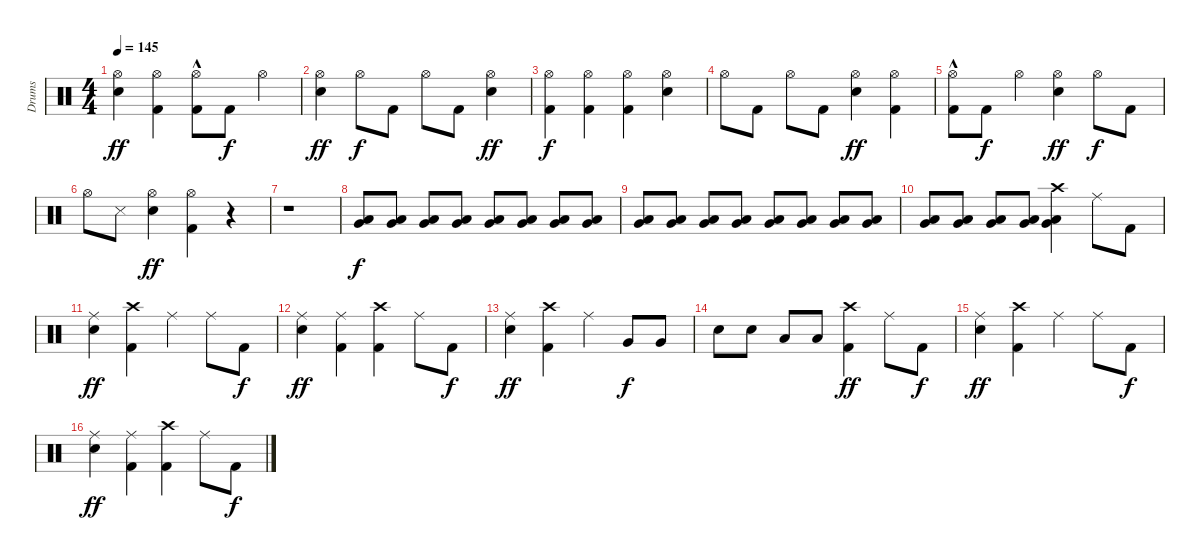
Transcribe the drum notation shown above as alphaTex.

\track ("Drums" "Drums") {instrument percussion}
\staff {score}
\articulation defaults
\ts (4 4)
\tempo 145
\clef neutral
\ks c
("Hi-Hat (open)" "Electric Snare (hit)").4{dy ff} ("Hi-Hat (open)" "Kick (hit) 2").4 ("Hi-Hat (open)"{hac} "Kick (hit) 2").8 "Kick (hit) 2".8{dy f} "Hi-Hat (open)".4 |
("Hi-Hat (open)" "Electric Snare (hit)").4{dy ff} "Hi-Hat (open)".8{dy f} "Kick (hit) 2".8 "Hi-Hat (open)".8 "Kick (hit) 2".8 ("Hi-Hat (open)" "Electric Snare (hit)").4{dy ff} |
("Hi-Hat (open)" "Kick (hit) 2").4{dy f} ("Hi-Hat (open)" "Kick (hit) 2").4 ("Hi-Hat (open)" "Kick (hit) 2").4 ("Hi-Hat (open)" "Electric Snare (hit)").4 |
"Hi-Hat (open)".8 "Kick (hit) 2".8 "Hi-Hat (open)".8 "Kick (hit) 2".8 ("Hi-Hat (open)" "Electric Snare (hit)").4{dy ff} ("Hi-Hat (open)" "Kick (hit) 2").4 |
("Hi-Hat (open)"{hac} "Kick (hit) 2").8 "Kick (hit) 2".8{dy f} "Hi-Hat (open)".4 ("Hi-Hat (open)" "Electric Snare (hit)").4{dy ff} "Hi-Hat (open)".8{dy f} "Kick (hit) 2".8 |
"Hi-Hat (open)".8 "Snare (side stick) 3".8 ("Hi-Hat (open)" "Electric Snare (hit)").4{dy ff} ("Hi-Hat (open)" "Kick (hit) 2").4 r.4 |
r.1 |
("Low Tom (hit)" "Very Low Tom (hit)").8{dy f volume 4} ("Low Tom (hit)" "Very Low Tom (hit)").8{volume 5} ("Low Tom (hit)" "Very Low Tom (hit)").8{volume 6} ("Low Tom (hit)" "Very Low Tom (hit)").8{volume 7} ("Low Tom (hit)" "Very Low Tom (hit)").8{volume 8} ("Low Tom (hit)" "Very Low Tom (hit)").8{volume 9} ("Low Tom (hit)" "Very Low Tom (hit)").8{volume 10} ("Low Tom (hit)" "Very Low Tom (hit)").8{volume 11} |
("Low Tom (hit)" "Very Low Tom (hit)").8{volume 12} ("Low Tom (hit)" "Very Low Tom (hit)").8{volume 13} ("Low Tom (hit)" "Very Low Tom (hit)").8{volume 13} ("Low Tom (hit)" "Very Low Tom (hit)").8{volume 14} ("Low Tom (hit)" "Very Low Tom (hit)").8 ("Low Tom (hit)" "Very Low Tom (hit)").8 ("Low Tom (hit)" "Very Low Tom (hit)").8 ("Low Tom (hit)" "Very Low Tom (hit)").8 |
("Low Tom (hit)" "Very Low Tom (hit)").8{volume 12} ("Low Tom (hit)" "Very Low Tom (hit)").8{volume 13} ("Low Tom (hit)" "Very Low Tom (hit)").8{volume 13} ("Low Tom (hit)" "Very Low Tom (hit)").8{volume 14} ("Crash high (hit)" "Low Tom (hit)" "Very Low Tom (hit)").4 "Ride (middle)".8 "Kick (hit) 2".8 |
("Ride (middle)" "Electric Snare (hit)").4{dy ff} ("Crash high (hit)" "Kick (hit) 2").4 "Ride (middle)".4 "Ride (middle)".8 "Kick (hit) 2".8{dy f} |
("Ride (middle)" "Electric Snare (hit)").4{dy ff} ("Ride (middle)" "Kick (hit) 2").4 ("Crash high (hit)" "Kick (hit) 2").4 "Ride (middle)".8 "Kick (hit) 2".8{dy f} |
("Ride (middle)" "Electric Snare (hit)").4{dy ff} ("Crash high (hit)" "Kick (hit) 2").4 "Ride (middle)".4 "Very Low Tom (hit)".8{dy f} "Very Low Tom (hit)".8 |
"Electric Snare (hit)".8 "Electric Snare (hit)".8 "Low Tom (hit)".8 "Low Tom (hit)".8 ("Crash high (hit)" "Kick (hit) 2").4{dy ff} "Ride (middle)".8 "Kick (hit) 2".8{dy f} |
("Ride (middle)" "Electric Snare (hit)").4{dy ff} ("Crash high (hit)" "Kick (hit) 2").4 "Ride (middle)".4 "Ride (middle)".8 "Kick (hit) 2".8{dy f} |
("Ride (middle)" "Electric Snare (hit)").4{dy ff} ("Ride (middle)" "Kick (hit) 2").4 ("Crash high (hit)" "Kick (hit) 2").4 "Ride (middle)".8 "Kick (hit) 2".8{dy f}
